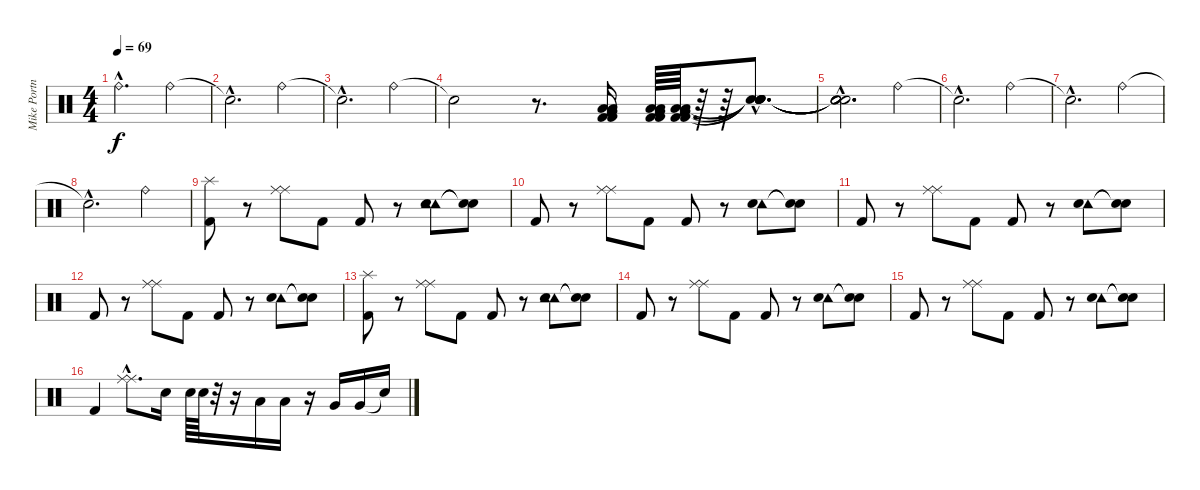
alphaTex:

\track ("Mike Portnoy" "Mike Portn") {instrument percussion}
\staff {score}
\articulation defaults
\ts (4 4)
\tempo 69
\clef neutral
\ks c "Ride (bell)"{hac}.2{d dy f} "Ride (bell)".4
|
"Snare (hit)"{hac t}.2{d} "Ride (bell)".4 |
"Snare (hit)"{hac t}.2{d} "Ride (bell)".4 |
"Snare (hit)"{t}.2 r.8{d} ("Very Low Tom (hit)" "Low Floor Tom (hit)" "Low Floor Tom (hit)" "Kick (hit) 2" "Kick (hit) 2").16 ("Very Low Tom (hit)" "Low Floor Tom (hit)" "Low Floor Tom (hit)" "Kick (hit) 2" "Kick (hit) 2").64 ("Very Low Tom (hit)" "Low Floor Tom (hit)" "Low Floor Tom (hit)" "Kick (hit) 2" "Kick (hit) 2").64 r.64 r.64 ("Snare (hit)"{hac t} "Snare (hit)"{hac t} "Snare (hit)"{hac t} "Snare (hit)"{hac t} "Snare (hit)"{hac t}).8{d} |
("Snare (hit)"{hac t} "Snare (hit)"{hac t} "Snare (hit)"{hac t} "Snare (hit)"{hac t} "Snare (hit)"{hac t}).2{d} "Ride (bell)".4 |
"Snare (hit)"{hac t}.2{d} "Ride (bell)".4 |
"Snare (hit)"{hac t}.2{d} "Ride (bell)".4 |
"Snare (hit)"{hac t}.2{d} "Ride (bell)".4 |
("Splash (hit)" "Kick (hit) 2").8 r.8 ("Ride (middle)" "Ride (middle)").8 "Kick (hit) 2".8 "Kick (hit) 2".8 r.8 ("Tambourine (hit)" "Tambourine (hit)" "Electric Snare (hit)").8 ("Snare (hit)"{t} "Snare (hit)"{t}).8 |
"Kick (hit) 2".8 r.8 ("Ride (middle)" "Ride (middle)").8 "Kick (hit) 2".8 "Kick (hit) 2".8 r.8 ("Tambourine (hit)" "Electric Snare (hit)").8 ("Snare (hit)"{t} "Snare (hit)"{t}).8 |
"Kick (hit) 2".8 r.8 ("Ride (middle)" "Ride (middle)").8 "Kick (hit) 2".8 "Kick (hit) 2".8 r.8 ("Tambourine (hit)" "Electric Snare (hit)").8 ("Snare (hit)"{t} "Snare (hit)"{t}).8 |
"Kick (hit) 2".8 r.8 ("Ride (middle)" "Ride (middle)").8 "Kick (hit) 2".8 "Kick (hit) 2".8 r.8 ("Tambourine (hit)" "Electric Snare (hit)").8 ("Snare (hit)"{t} "Snare (hit)"{t}).8 |
("Splash (hit)" "Kick (hit) 2").8 r.8 ("Ride (middle)" "Ride (middle)").8 "Kick (hit) 2".8 "Kick (hit) 2".8 r.8 ("Tambourine (hit)" "Tambourine (hit)" "Electric Snare (hit)").8 ("Snare (hit)"{t} "Snare (hit)"{t}).8 |
"Kick (hit) 2".8 r.8 ("Ride (middle)" "Ride (middle)").8 "Kick (hit) 2".8 "Kick (hit) 2".8 r.8 ("Tambourine (hit)" "Electric Snare (hit)").8 ("Snare (hit)"{t} "Snare (hit)"{t}).8 |
"Kick (hit) 2".8 r.8 ("Ride (middle)" "Ride (middle)").8 "Kick (hit) 2".8 "Kick (hit) 2".8 r.8 ("Tambourine (hit)" "Electric Snare (hit)").8 ("Snare (hit)"{t} "Snare (hit)"{t}).8 |
"Kick (hit) 2".4 ("Ride (middle)"{hac} "Ride (middle)"{hac}).8{d} "Snare (hit) 2".16 "Snare (hit) 2".64 "Snare (hit) 2".64 r.32 r.16 "Low Tom (hit)".16 "Low Tom (hit)".16 r.16 "Very Low Tom (hit)".16 "Very Low Tom (hit)".16 "Snare (hit)"{t}.16
